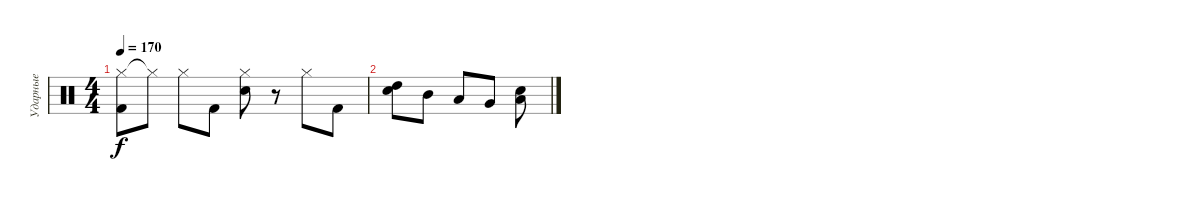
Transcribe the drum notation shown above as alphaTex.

\track ("Ударные" "Ударные") {instrument percussion}
\staff {score}
\articulation defaults
\ts (4 4)
\tempo 170
\clef neutral
\ks c
("Hi-Hat (closed)" "Kick (hit) 2").8{dy f} "Hi-Hat (closed)"{t}.8 "Hi-Hat (closed)".8 "Kick (hit) 2".8 ("Hi-Hat (closed)" "Electric Snare (hit)").8 r.8 "Hi-Hat (closed)".8 "Kick (hit) 2".8 |
("High Tom (hit)" "Electric Snare (hit)").8 "Mid Tom (hit)".8 "Low Tom (hit)".8 "Very Low Tom (hit)".8 ("Electric Snare (hit)" "Low Floor Tom (hit)").8
